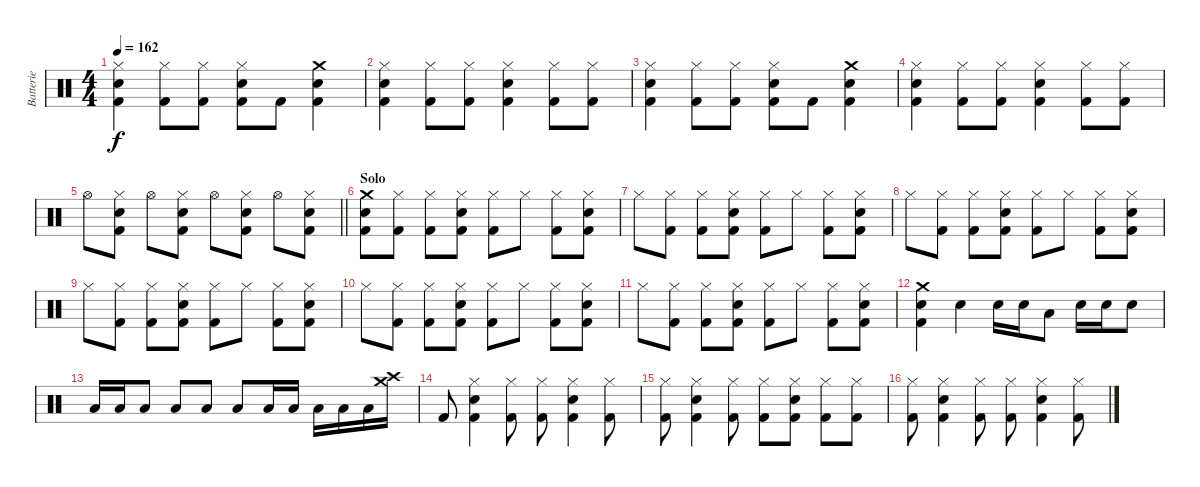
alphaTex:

\track ("Batterie" "Batterie") {instrument percussion}
\staff {score}
\articulation defaults
\ts (4 4)
\tempo 162
\clef neutral
\ks c
("Kick (hit) 2" "Snare (hit) 2" "Hi-Hat (closed)").4{dy f} ("Kick (hit) 2" "Hi-Hat (closed)").8 ("Kick (hit) 2" "Hi-Hat (closed)").8 ("Kick (hit) 2" "Snare (hit) 2" "Hi-Hat (closed)").8 "Kick (hit) 2".8 ("Kick (hit) 2" "Snare (hit) 2" "Crash medium (hit)").4 |
("Kick (hit) 2" "Snare (hit) 2" "Hi-Hat (closed)").4 ("Kick (hit) 2" "Hi-Hat (closed)").8 ("Kick (hit) 2" "Hi-Hat (closed)").8 ("Kick (hit) 2" "Snare (hit) 2" "Hi-Hat (closed)").4 ("Kick (hit) 2" "Hi-Hat (closed)").8 ("Kick (hit) 2" "Hi-Hat (closed)").8 |
("Kick (hit) 2" "Snare (hit) 2" "Hi-Hat (closed)").4 ("Kick (hit) 2" "Hi-Hat (closed)").8 ("Kick (hit) 2" "Hi-Hat (closed)").8 ("Kick (hit) 2" "Snare (hit) 2" "Hi-Hat (closed)").8 "Kick (hit) 2".8 ("Kick (hit) 2" "Snare (hit) 2" "Crash medium (hit)").4 |
("Kick (hit) 2" "Snare (hit) 2" "Hi-Hat (closed)").4 ("Kick (hit) 2" "Hi-Hat (closed)").8 ("Kick (hit) 2" "Hi-Hat (closed)").8 ("Kick (hit) 2" "Snare (hit) 2" "Hi-Hat (closed)").4 ("Kick (hit) 2" "Hi-Hat (closed)").8 ("Kick (hit) 2" "Hi-Hat (closed)").8 |
\barLineRight lightlight "Hi-Hat (open)".8
("Kick (hit) 2" "Snare (hit) 2" "Hi-Hat (closed)").8 "Hi-Hat (open)".8 ("Kick (hit) 2" "Snare (hit) 2" "Hi-Hat (closed)").8 "Hi-Hat (open)".8 ("Kick (hit) 2" "Snare (hit) 2" "Hi-Hat (closed)").8 "Hi-Hat (open)".8 ("Kick (hit) 2" "Snare (hit) 2" "Hi-Hat (closed)").8 |
\section ("" "Solo")
("Kick (hit) 2" "Snare (hit) 2" "Crash medium (hit)").8 ("Kick (hit) 2" "Hi-Hat (closed)").8 ("Kick (hit) 2" "Hi-Hat (closed)").8 ("Kick (hit) 2" "Snare (hit) 2" "Hi-Hat (closed)").8 ("Kick (hit) 2" "Hi-Hat (closed)").8 "Hi-Hat (closed)".8 ("Kick (hit) 2" "Hi-Hat (closed)").8 ("Kick (hit) 2" "Snare (hit) 2" "Hi-Hat (closed)").8 |
"Hi-Hat (closed)".8 ("Kick (hit) 2" "Hi-Hat (closed)").8 ("Kick (hit) 2" "Hi-Hat (closed)").8 ("Kick (hit) 2" "Snare (hit) 2" "Hi-Hat (closed)").8 ("Kick (hit) 2" "Hi-Hat (closed)").8 "Hi-Hat (closed)".8 ("Kick (hit) 2" "Hi-Hat (closed)").8 ("Kick (hit) 2" "Snare (hit) 2" "Hi-Hat (closed)").8 |
"Hi-Hat (closed)".8 ("Kick (hit) 2" "Hi-Hat (closed)").8 ("Kick (hit) 2" "Hi-Hat (closed)").8 ("Kick (hit) 2" "Snare (hit) 2" "Hi-Hat (closed)").8 ("Kick (hit) 2" "Hi-Hat (closed)").8 "Hi-Hat (closed)".8 ("Kick (hit) 2" "Hi-Hat (closed)").8 ("Kick (hit) 2" "Snare (hit) 2" "Hi-Hat (closed)").8 |
"Hi-Hat (closed)".8 ("Kick (hit) 2" "Hi-Hat (closed)").8 ("Kick (hit) 2" "Hi-Hat (closed)").8 ("Kick (hit) 2" "Snare (hit) 2" "Hi-Hat (closed)").8 ("Kick (hit) 2" "Hi-Hat (closed)").8 "Hi-Hat (closed)".8 ("Kick (hit) 2" "Hi-Hat (closed)").8 ("Kick (hit) 2" "Snare (hit) 2" "Hi-Hat (closed)").8 |
"Hi-Hat (closed)".8 ("Kick (hit) 2" "Hi-Hat (closed)").8 ("Kick (hit) 2" "Hi-Hat (closed)").8 ("Kick (hit) 2" "Snare (hit) 2" "Hi-Hat (closed)").8 ("Kick (hit) 2" "Hi-Hat (closed)").8 "Hi-Hat (closed)".8 ("Kick (hit) 2" "Hi-Hat (closed)").8 ("Kick (hit) 2" "Snare (hit) 2" "Hi-Hat (closed)").8 |
"Hi-Hat (closed)".8 ("Kick (hit) 2" "Hi-Hat (closed)").8 ("Kick (hit) 2" "Hi-Hat (closed)").8 ("Kick (hit) 2" "Snare (hit) 2" "Hi-Hat (closed)").8 ("Kick (hit) 2" "Hi-Hat (closed)").8 "Hi-Hat (closed)".8 ("Kick (hit) 2" "Hi-Hat (closed)").8 ("Kick (hit) 2" "Snare (hit) 2" "Hi-Hat (closed)").8 |
("Kick (hit) 2" "Snare (hit) 2" "Crash medium (hit)").4 "Snare (hit) 2".4 "Snare (hit) 2".16 "Snare (hit) 2".16 "Low Tom (hit)".8 "Snare (hit) 2".16 "Snare (hit) 2".16 "Snare (hit) 2".8 |
"Low Tom (hit)".16 "Low Tom (hit)".16 "Low Tom (hit)".8 "Low Tom (hit)".8 "Low Tom (hit)".8 "Low Tom (hit)".8 "Low Tom (hit)".16 "Low Tom (hit)".16 "Low Tom (hit)".16 "Low Tom (hit)".16 "Low Tom (hit)".16 ("Crash medium (hit)" "Crash high (hit)").16 |
"Kick (hit) 2".8 ("Kick (hit) 2" "Snare (hit) 2" "Hi-Hat (closed)").4 ("Kick (hit) 2" "Hi-Hat (closed)").8 ("Kick (hit) 2" "Hi-Hat (closed)").8 ("Kick (hit) 2" "Snare (hit) 2" "Hi-Hat (closed)").4 ("Kick (hit) 2" "Hi-Hat (closed)").8 |
("Kick (hit) 2" "Hi-Hat (closed)").8 ("Kick (hit) 2" "Snare (hit) 2" "Hi-Hat (closed)").4 ("Kick (hit) 2" "Hi-Hat (closed)").8 ("Kick (hit) 2" "Hi-Hat (closed)").8 ("Kick (hit) 2" "Snare (hit) 2" "Hi-Hat (closed)").8 ("Kick (hit) 2" "Hi-Hat (closed)").8 ("Kick (hit) 2" "Hi-Hat (closed)").8 |
("Kick (hit) 2" "Hi-Hat (closed)").8 ("Kick (hit) 2" "Snare (hit) 2" "Hi-Hat (closed)").4 ("Kick (hit) 2" "Hi-Hat (closed)").8 ("Kick (hit) 2" "Hi-Hat (closed)").8 ("Kick (hit) 2" "Snare (hit) 2" "Hi-Hat (closed)").4 ("Kick (hit) 2" "Hi-Hat (closed)").8
